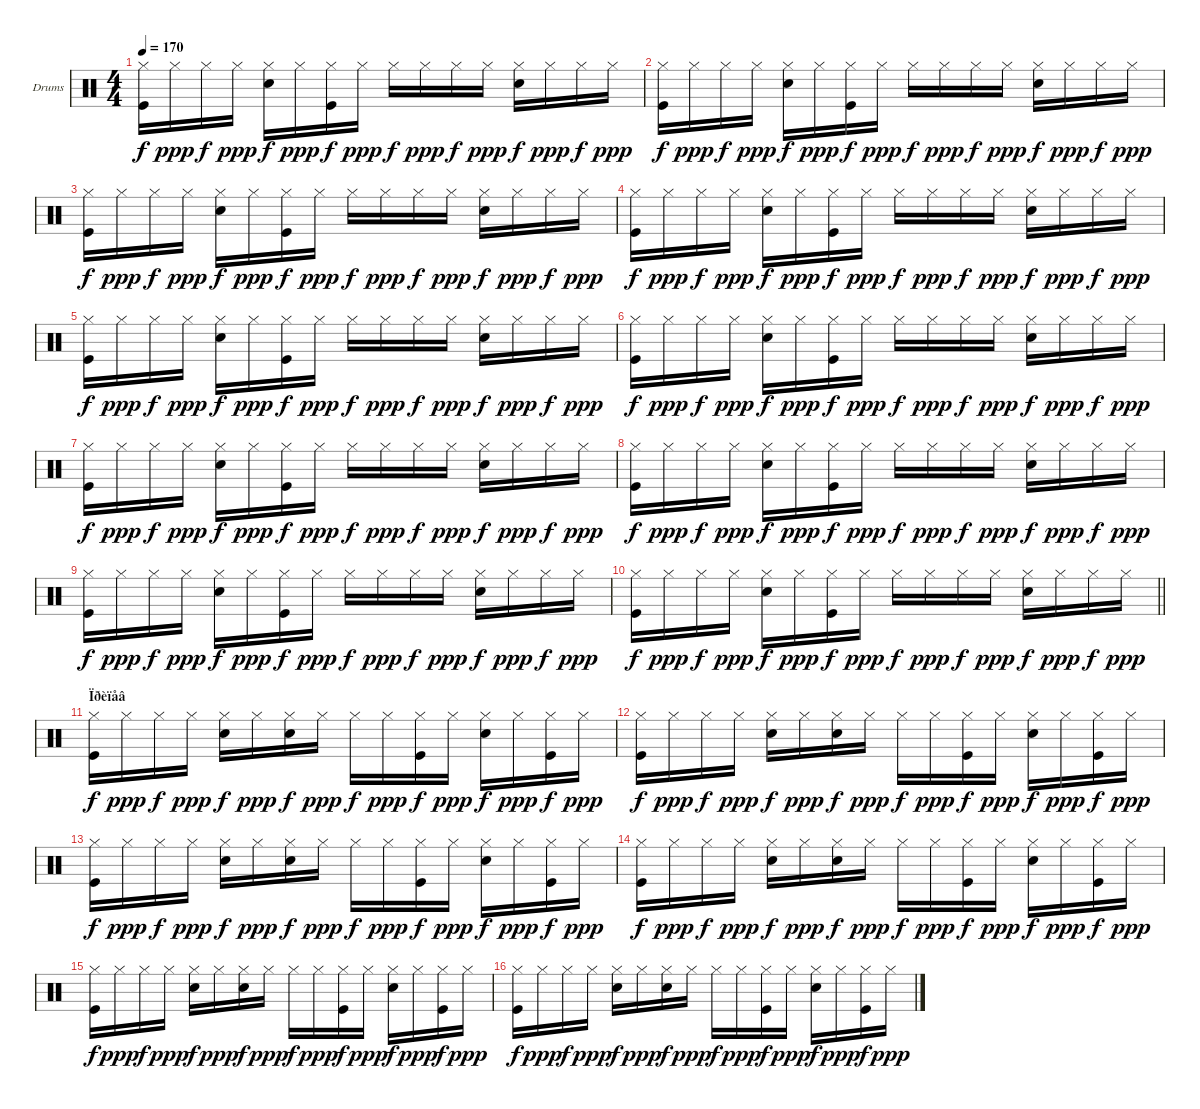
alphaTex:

\bracketExtendMode groupsimilarinstruments
\firstSystemTrackNameOrientation horizontal
\otherSystemsTrackNameOrientation horizontal
\track ("Drumkit" "Drums") {instrument percussion}
\staff {score}
\articulation defaults
\ts (4 4)
\tempo 170
\clef neutral
\ks c
("Hi-Hat (closed)" "Kick (hit)").16{dy f} "Hi-Hat (closed)".16{dy ppp} "Hi-Hat (closed)".16{dy f} "Hi-Hat (closed)".16{dy ppp} ("Hi-Hat (closed)" "Snare (hit) 2").16{dy f} "Hi-Hat (closed)".16{dy ppp} ("Hi-Hat (closed)" "Kick (hit)").16{dy f} "Hi-Hat (closed)".16{dy ppp} "Hi-Hat (closed)".16{dy f} "Hi-Hat (closed)".16{dy ppp} "Hi-Hat (closed)".16{dy f} "Hi-Hat (closed)".16{dy ppp} ("Hi-Hat (closed)" "Snare (hit) 2").16{dy f} "Hi-Hat (closed)".16{dy ppp} "Hi-Hat (closed)".16{dy f} "Hi-Hat (closed)".16{dy ppp} |
("Hi-Hat (closed)" "Kick (hit)").16{dy f} "Hi-Hat (closed)".16{dy ppp} "Hi-Hat (closed)".16{dy f} "Hi-Hat (closed)".16{dy ppp} ("Hi-Hat (closed)" "Snare (hit) 2").16{dy f} "Hi-Hat (closed)".16{dy ppp} ("Hi-Hat (closed)" "Kick (hit)").16{dy f} "Hi-Hat (closed)".16{dy ppp} "Hi-Hat (closed)".16{dy f} "Hi-Hat (closed)".16{dy ppp} "Hi-Hat (closed)".16{dy f} "Hi-Hat (closed)".16{dy ppp} ("Hi-Hat (closed)" "Snare (hit) 2").16{dy f} "Hi-Hat (closed)".16{dy ppp} "Hi-Hat (closed)".16{dy f} "Hi-Hat (closed)".16{dy ppp} |
("Hi-Hat (closed)" "Kick (hit)").16{dy f} "Hi-Hat (closed)".16{dy ppp} "Hi-Hat (closed)".16{dy f} "Hi-Hat (closed)".16{dy ppp} ("Hi-Hat (closed)" "Snare (hit) 2").16{dy f} "Hi-Hat (closed)".16{dy ppp} ("Hi-Hat (closed)" "Kick (hit)").16{dy f} "Hi-Hat (closed)".16{dy ppp} "Hi-Hat (closed)".16{dy f} "Hi-Hat (closed)".16{dy ppp} "Hi-Hat (closed)".16{dy f} "Hi-Hat (closed)".16{dy ppp} ("Hi-Hat (closed)" "Snare (hit) 2").16{dy f} "Hi-Hat (closed)".16{dy ppp} "Hi-Hat (closed)".16{dy f} "Hi-Hat (closed)".16{dy ppp} |
("Hi-Hat (closed)" "Kick (hit)").16{dy f} "Hi-Hat (closed)".16{dy ppp} "Hi-Hat (closed)".16{dy f} "Hi-Hat (closed)".16{dy ppp} ("Hi-Hat (closed)" "Snare (hit) 2").16{dy f} "Hi-Hat (closed)".16{dy ppp} ("Hi-Hat (closed)" "Kick (hit)").16{dy f} "Hi-Hat (closed)".16{dy ppp} "Hi-Hat (closed)".16{dy f} "Hi-Hat (closed)".16{dy ppp} "Hi-Hat (closed)".16{dy f} "Hi-Hat (closed)".16{dy ppp} ("Hi-Hat (closed)" "Snare (hit) 2").16{dy f} "Hi-Hat (closed)".16{dy ppp} "Hi-Hat (closed)".16{dy f} "Hi-Hat (closed)".16{dy ppp} |
("Hi-Hat (closed)" "Kick (hit)").16{dy f} "Hi-Hat (closed)".16{dy ppp} "Hi-Hat (closed)".16{dy f} "Hi-Hat (closed)".16{dy ppp} ("Hi-Hat (closed)" "Snare (hit) 2").16{dy f} "Hi-Hat (closed)".16{dy ppp} ("Hi-Hat (closed)" "Kick (hit)").16{dy f} "Hi-Hat (closed)".16{dy ppp} "Hi-Hat (closed)".16{dy f} "Hi-Hat (closed)".16{dy ppp} "Hi-Hat (closed)".16{dy f} "Hi-Hat (closed)".16{dy ppp} ("Hi-Hat (closed)" "Snare (hit) 2").16{dy f} "Hi-Hat (closed)".16{dy ppp} "Hi-Hat (closed)".16{dy f} "Hi-Hat (closed)".16{dy ppp} |
("Hi-Hat (closed)" "Kick (hit)").16{dy f} "Hi-Hat (closed)".16{dy ppp} "Hi-Hat (closed)".16{dy f} "Hi-Hat (closed)".16{dy ppp} ("Hi-Hat (closed)" "Snare (hit) 2").16{dy f} "Hi-Hat (closed)".16{dy ppp} ("Hi-Hat (closed)" "Kick (hit)").16{dy f} "Hi-Hat (closed)".16{dy ppp} "Hi-Hat (closed)".16{dy f} "Hi-Hat (closed)".16{dy ppp} "Hi-Hat (closed)".16{dy f} "Hi-Hat (closed)".16{dy ppp} ("Hi-Hat (closed)" "Snare (hit) 2").16{dy f} "Hi-Hat (closed)".16{dy ppp} "Hi-Hat (closed)".16{dy f} "Hi-Hat (closed)".16{dy ppp} |
("Hi-Hat (closed)" "Kick (hit)").16{dy f} "Hi-Hat (closed)".16{dy ppp} "Hi-Hat (closed)".16{dy f} "Hi-Hat (closed)".16{dy ppp} ("Hi-Hat (closed)" "Snare (hit) 2").16{dy f} "Hi-Hat (closed)".16{dy ppp} ("Hi-Hat (closed)" "Kick (hit)").16{dy f} "Hi-Hat (closed)".16{dy ppp} "Hi-Hat (closed)".16{dy f} "Hi-Hat (closed)".16{dy ppp} "Hi-Hat (closed)".16{dy f} "Hi-Hat (closed)".16{dy ppp} ("Hi-Hat (closed)" "Snare (hit) 2").16{dy f} "Hi-Hat (closed)".16{dy ppp} "Hi-Hat (closed)".16{dy f} "Hi-Hat (closed)".16{dy ppp} |
("Hi-Hat (closed)" "Kick (hit)").16{dy f} "Hi-Hat (closed)".16{dy ppp} "Hi-Hat (closed)".16{dy f} "Hi-Hat (closed)".16{dy ppp} ("Hi-Hat (closed)" "Snare (hit) 2").16{dy f} "Hi-Hat (closed)".16{dy ppp} ("Hi-Hat (closed)" "Kick (hit)").16{dy f} "Hi-Hat (closed)".16{dy ppp} "Hi-Hat (closed)".16{dy f} "Hi-Hat (closed)".16{dy ppp} "Hi-Hat (closed)".16{dy f} "Hi-Hat (closed)".16{dy ppp} ("Hi-Hat (closed)" "Snare (hit) 2").16{dy f} "Hi-Hat (closed)".16{dy ppp} "Hi-Hat (closed)".16{dy f} "Hi-Hat (closed)".16{dy ppp} |
("Hi-Hat (closed)" "Kick (hit)").16{dy f} "Hi-Hat (closed)".16{dy ppp} "Hi-Hat (closed)".16{dy f} "Hi-Hat (closed)".16{dy ppp} ("Hi-Hat (closed)" "Snare (hit) 2").16{dy f} "Hi-Hat (closed)".16{dy ppp} ("Hi-Hat (closed)" "Kick (hit)").16{dy f} "Hi-Hat (closed)".16{dy ppp} "Hi-Hat (closed)".16{dy f} "Hi-Hat (closed)".16{dy ppp} "Hi-Hat (closed)".16{dy f} "Hi-Hat (closed)".16{dy ppp} ("Hi-Hat (closed)" "Snare (hit) 2").16{dy f} "Hi-Hat (closed)".16{dy ppp} "Hi-Hat (closed)".16{dy f} "Hi-Hat (closed)".16{dy ppp} |
\barLineRight lightlight
("Hi-Hat (closed)" "Kick (hit)").16{dy f} "Hi-Hat (closed)".16{dy ppp} "Hi-Hat (closed)".16{dy f} "Hi-Hat (closed)".16{dy ppp} ("Hi-Hat (closed)" "Snare (hit) 2").16{dy f} "Hi-Hat (closed)".16{dy ppp} ("Hi-Hat (closed)" "Kick (hit)").16{dy f} "Hi-Hat (closed)".16{dy ppp} "Hi-Hat (closed)".16{dy f} "Hi-Hat (closed)".16{dy ppp} "Hi-Hat (closed)".16{dy f} "Hi-Hat (closed)".16{dy ppp} ("Hi-Hat (closed)" "Snare (hit) 2").16{dy f} "Hi-Hat (closed)".16{dy ppp} "Hi-Hat (closed)".16{dy f} "Hi-Hat (closed)".16{dy ppp} |
\section ("" "Ïðèïåâ")
("Hi-Hat (closed)" "Kick (hit)").16{dy f} "Hi-Hat (closed)".16{dy ppp} "Hi-Hat (closed)".16{dy f} "Hi-Hat (closed)".16{dy ppp} ("Hi-Hat (closed)" "Snare (hit) 2").16{dy f} "Hi-Hat (closed)".16{dy ppp} ("Hi-Hat (closed)" "Snare (hit) 2").16{dy f} "Hi-Hat (closed)".16{dy ppp} "Hi-Hat (closed)".16{dy f} "Hi-Hat (closed)".16{dy ppp} ("Hi-Hat (closed)" "Kick (hit)").16{dy f} "Hi-Hat (closed)".16{dy ppp} ("Hi-Hat (closed)" "Snare (hit) 2").16{dy f} "Hi-Hat (closed)".16{dy ppp} ("Hi-Hat (closed)" "Kick (hit)").16{dy f} "Hi-Hat (closed)".16{dy ppp} |
("Hi-Hat (closed)" "Kick (hit)").16{dy f} "Hi-Hat (closed)".16{dy ppp} "Hi-Hat (closed)".16{dy f} "Hi-Hat (closed)".16{dy ppp} ("Hi-Hat (closed)" "Snare (hit) 2").16{dy f} "Hi-Hat (closed)".16{dy ppp} ("Hi-Hat (closed)" "Snare (hit) 2").16{dy f} "Hi-Hat (closed)".16{dy ppp} "Hi-Hat (closed)".16{dy f} "Hi-Hat (closed)".16{dy ppp} ("Hi-Hat (closed)" "Kick (hit)").16{dy f} "Hi-Hat (closed)".16{dy ppp} ("Hi-Hat (closed)" "Snare (hit) 2").16{dy f} "Hi-Hat (closed)".16{dy ppp} ("Hi-Hat (closed)" "Kick (hit)").16{dy f} "Hi-Hat (closed)".16{dy ppp} |
("Hi-Hat (closed)" "Kick (hit)").16{dy f} "Hi-Hat (closed)".16{dy ppp} "Hi-Hat (closed)".16{dy f} "Hi-Hat (closed)".16{dy ppp} ("Hi-Hat (closed)" "Snare (hit) 2").16{dy f} "Hi-Hat (closed)".16{dy ppp} ("Hi-Hat (closed)" "Snare (hit) 2").16{dy f} "Hi-Hat (closed)".16{dy ppp} "Hi-Hat (closed)".16{dy f} "Hi-Hat (closed)".16{dy ppp} ("Hi-Hat (closed)" "Kick (hit)").16{dy f} "Hi-Hat (closed)".16{dy ppp} ("Hi-Hat (closed)" "Snare (hit) 2").16{dy f} "Hi-Hat (closed)".16{dy ppp} ("Hi-Hat (closed)" "Kick (hit)").16{dy f} "Hi-Hat (closed)".16{dy ppp} |
("Hi-Hat (closed)" "Kick (hit)").16{dy f} "Hi-Hat (closed)".16{dy ppp} "Hi-Hat (closed)".16{dy f} "Hi-Hat (closed)".16{dy ppp} ("Hi-Hat (closed)" "Snare (hit) 2").16{dy f} "Hi-Hat (closed)".16{dy ppp} ("Hi-Hat (closed)" "Snare (hit) 2").16{dy f} "Hi-Hat (closed)".16{dy ppp} "Hi-Hat (closed)".16{dy f} "Hi-Hat (closed)".16{dy ppp} ("Hi-Hat (closed)" "Kick (hit)").16{dy f} "Hi-Hat (closed)".16{dy ppp} ("Hi-Hat (closed)" "Snare (hit) 2").16{dy f} "Hi-Hat (closed)".16{dy ppp} ("Hi-Hat (closed)" "Kick (hit)").16{dy f} "Hi-Hat (closed)".16{dy ppp} |
("Hi-Hat (closed)" "Kick (hit)").16{dy f} "Hi-Hat (closed)".16{dy ppp} "Hi-Hat (closed)".16{dy f} "Hi-Hat (closed)".16{dy ppp} ("Hi-Hat (closed)" "Snare (hit) 2").16{dy f} "Hi-Hat (closed)".16{dy ppp} ("Hi-Hat (closed)" "Snare (hit) 2").16{dy f} "Hi-Hat (closed)".16{dy ppp} "Hi-Hat (closed)".16{dy f} "Hi-Hat (closed)".16{dy ppp} ("Hi-Hat (closed)" "Kick (hit)").16{dy f} "Hi-Hat (closed)".16{dy ppp} ("Hi-Hat (closed)" "Snare (hit) 2").16{dy f} "Hi-Hat (closed)".16{dy ppp} ("Hi-Hat (closed)" "Kick (hit)").16{dy f} "Hi-Hat (closed)".16{dy ppp} |
("Hi-Hat (closed)" "Kick (hit)").16{dy f} "Hi-Hat (closed)".16{dy ppp} "Hi-Hat (closed)".16{dy f} "Hi-Hat (closed)".16{dy ppp} ("Hi-Hat (closed)" "Snare (hit) 2").16{dy f} "Hi-Hat (closed)".16{dy ppp} ("Hi-Hat (closed)" "Snare (hit) 2").16{dy f} "Hi-Hat (closed)".16{dy ppp} "Hi-Hat (closed)".16{dy f} "Hi-Hat (closed)".16{dy ppp} ("Hi-Hat (closed)" "Kick (hit)").16{dy f} "Hi-Hat (closed)".16{dy ppp} ("Hi-Hat (closed)" "Snare (hit) 2").16{dy f} "Hi-Hat (closed)".16{dy ppp} ("Hi-Hat (closed)" "Kick (hit)").16{dy f} "Hi-Hat (closed)".16{dy ppp}
